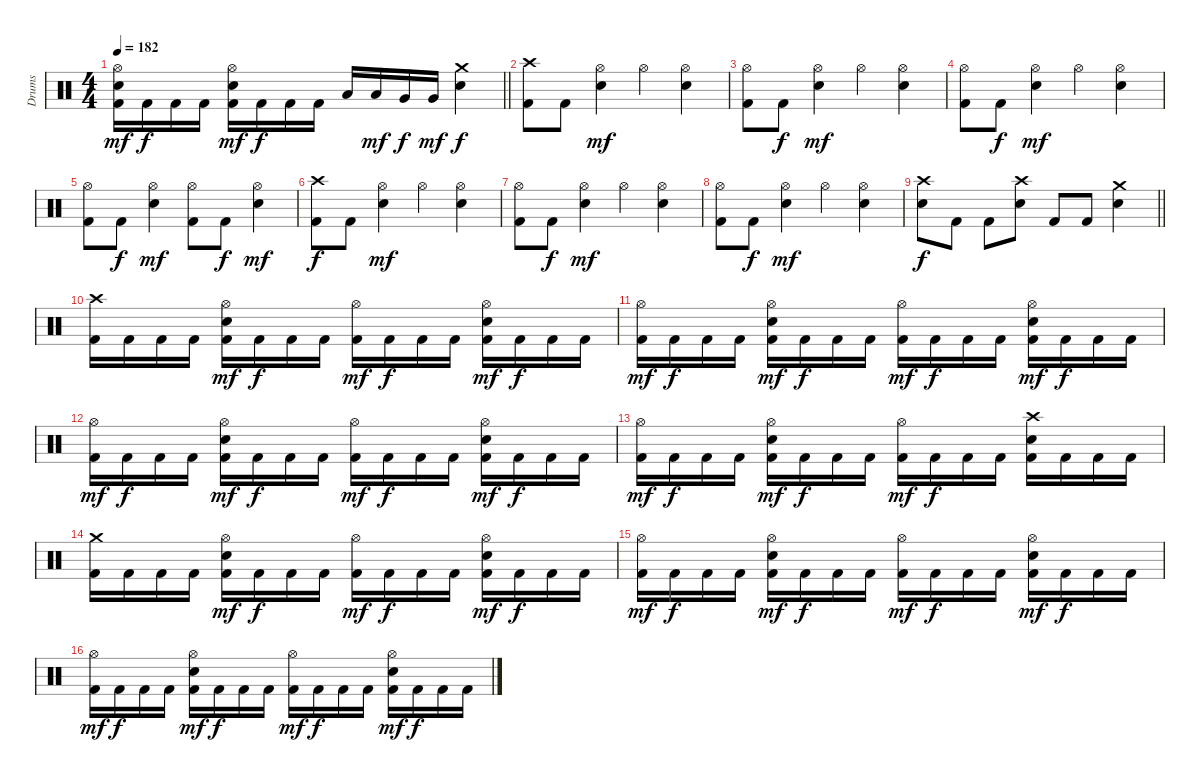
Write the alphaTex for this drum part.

\track ("Drums" "Drums") {instrument percussion}
\staff {score}
\articulation defaults
\ts (4 4)
\tempo 182
\clef neutral
\barLineRight lightlight
\ks c
("Hi-Hat (open)" "Electric Snare (hit)" "Kick (hit) 2").16{dy mf} "Kick (hit) 2".16{dy f} "Kick (hit) 2".16 "Kick (hit) 2".16 ("Hi-Hat (open)" "Electric Snare (hit)" "Kick (hit) 2").16{dy mf} "Kick (hit) 2".16{dy f} "Kick (hit) 2".16 "Kick (hit) 2".16 "Low Tom (hit)".16 "Low Tom (hit)".16{dy mf} "Very Low Tom (hit)".16{dy f} "Very Low Tom (hit)".16{dy mf} ("Crash medium (hit)" "Electric Snare (hit)").4{dy f} |
("Crash high (hit)" "Kick (hit) 2").8 "Kick (hit) 2".8 ("Hi-Hat (open)" "Electric Snare (hit)").4{dy mf} "Hi-Hat (open)".4 ("Hi-Hat (open)" "Electric Snare (hit)").4 |
("Hi-Hat (open)" "Kick (hit) 2").8 "Kick (hit) 2".8{dy f} ("Hi-Hat (open)" "Electric Snare (hit)").4{dy mf} "Hi-Hat (open)".4 ("Hi-Hat (open)" "Electric Snare (hit)").4 |
("Hi-Hat (open)" "Kick (hit) 2").8 "Kick (hit) 2".8{dy f} ("Hi-Hat (open)" "Electric Snare (hit)").4{dy mf} "Hi-Hat (open)".4 ("Hi-Hat (open)" "Electric Snare (hit)").4 |
("Hi-Hat (open)" "Kick (hit) 2").8 "Kick (hit) 2".8{dy f} ("Hi-Hat (open)" "Electric Snare (hit)").4{dy mf} ("Hi-Hat (open)" "Kick (hit) 2").8 "Kick (hit) 2".8{dy f} ("Hi-Hat (open)" "Electric Snare (hit)").4{dy mf} |
("Crash high (hit)" "Kick (hit) 2").8{dy f} "Kick (hit) 2".8 ("Hi-Hat (open)" "Electric Snare (hit)").4{dy mf} "Hi-Hat (open)".4 ("Hi-Hat (open)" "Electric Snare (hit)").4 |
("Hi-Hat (open)" "Kick (hit) 2").8 "Kick (hit) 2".8{dy f} ("Hi-Hat (open)" "Electric Snare (hit)").4{dy mf} "Hi-Hat (open)".4 ("Hi-Hat (open)" "Electric Snare (hit)").4 |
("Hi-Hat (open)" "Kick (hit) 2").8 "Kick (hit) 2".8{dy f} ("Hi-Hat (open)" "Electric Snare (hit)").4{dy mf} "Hi-Hat (open)".4 ("Hi-Hat (open)" "Electric Snare (hit)").4 |
\barLineRight lightlight
("Crash high (hit)" "Electric Snare (hit)").8{dy f} "Kick (hit) 2".8 "Kick (hit) 2".8 ("Crash high (hit)" "Electric Snare (hit)").8 "Kick (hit) 2".8 "Kick (hit) 2".8 ("Crash medium (hit)" "Electric Snare (hit)").4 |
("Crash high (hit)" "Kick (hit) 2").16 "Kick (hit) 2".16 "Kick (hit) 2".16 "Kick (hit) 2".16 ("Hi-Hat (open)" "Electric Snare (hit)" "Kick (hit) 2").16{dy mf} "Kick (hit) 2".16{dy f} "Kick (hit) 2".16 "Kick (hit) 2".16 ("Hi-Hat (open)" "Kick (hit) 2").16{dy mf} "Kick (hit) 2".16{dy f} "Kick (hit) 2".16 "Kick (hit) 2".16 ("Hi-Hat (open)" "Electric Snare (hit)" "Kick (hit) 2").16{dy mf} "Kick (hit) 2".16{dy f} "Kick (hit) 2".16 "Kick (hit) 2".16 |
("Hi-Hat (open)" "Kick (hit) 2").16{dy mf} "Kick (hit) 2".16{dy f} "Kick (hit) 2".16 "Kick (hit) 2".16 ("Hi-Hat (open)" "Electric Snare (hit)" "Kick (hit) 2").16{dy mf} "Kick (hit) 2".16{dy f} "Kick (hit) 2".16 "Kick (hit) 2".16 ("Hi-Hat (open)" "Kick (hit) 2").16{dy mf} "Kick (hit) 2".16{dy f} "Kick (hit) 2".16 "Kick (hit) 2".16 ("Hi-Hat (open)" "Electric Snare (hit)" "Kick (hit) 2").16{dy mf} "Kick (hit) 2".16{dy f} "Kick (hit) 2".16 "Kick (hit) 2".16 |
("Hi-Hat (open)" "Kick (hit) 2").16{dy mf} "Kick (hit) 2".16{dy f} "Kick (hit) 2".16 "Kick (hit) 2".16 ("Hi-Hat (open)" "Electric Snare (hit)" "Kick (hit) 2").16{dy mf} "Kick (hit) 2".16{dy f} "Kick (hit) 2".16 "Kick (hit) 2".16 ("Hi-Hat (open)" "Kick (hit) 2").16{dy mf} "Kick (hit) 2".16{dy f} "Kick (hit) 2".16 "Kick (hit) 2".16 ("Hi-Hat (open)" "Electric Snare (hit)" "Kick (hit) 2").16{dy mf} "Kick (hit) 2".16{dy f} "Kick (hit) 2".16 "Kick (hit) 2".16 |
("Hi-Hat (open)" "Kick (hit) 2").16{dy mf} "Kick (hit) 2".16{dy f} "Kick (hit) 2".16 "Kick (hit) 2".16 ("Hi-Hat (open)" "Electric Snare (hit)" "Kick (hit) 2").16{dy mf} "Kick (hit) 2".16{dy f} "Kick (hit) 2".16 "Kick (hit) 2".16 ("Hi-Hat (open)" "Kick (hit) 2").16{dy mf} "Kick (hit) 2".16{dy f} "Kick (hit) 2".16 "Kick (hit) 2".16 ("Crash high (hit)" "Electric Snare (hit)" "Kick (hit) 2").16 "Kick (hit) 2".16 "Kick (hit) 2".16 "Kick (hit) 2".16 |
("Crash medium (hit)" "Kick (hit) 2").16 "Kick (hit) 2".16 "Kick (hit) 2".16 "Kick (hit) 2".16 ("Hi-Hat (open)" "Electric Snare (hit)" "Kick (hit) 2").16{dy mf} "Kick (hit) 2".16{dy f} "Kick (hit) 2".16 "Kick (hit) 2".16 ("Hi-Hat (open)" "Kick (hit) 2").16{dy mf} "Kick (hit) 2".16{dy f} "Kick (hit) 2".16 "Kick (hit) 2".16 ("Hi-Hat (open)" "Electric Snare (hit)" "Kick (hit) 2").16{dy mf} "Kick (hit) 2".16{dy f} "Kick (hit) 2".16 "Kick (hit) 2".16 |
("Hi-Hat (open)" "Kick (hit) 2").16{dy mf} "Kick (hit) 2".16{dy f} "Kick (hit) 2".16 "Kick (hit) 2".16 ("Hi-Hat (open)" "Electric Snare (hit)" "Kick (hit) 2").16{dy mf} "Kick (hit) 2".16{dy f} "Kick (hit) 2".16 "Kick (hit) 2".16 ("Hi-Hat (open)" "Kick (hit) 2").16{dy mf} "Kick (hit) 2".16{dy f} "Kick (hit) 2".16 "Kick (hit) 2".16 ("Hi-Hat (open)" "Electric Snare (hit)" "Kick (hit) 2").16{dy mf} "Kick (hit) 2".16{dy f} "Kick (hit) 2".16 "Kick (hit) 2".16 |
("Hi-Hat (open)" "Kick (hit) 2").16{dy mf} "Kick (hit) 2".16{dy f} "Kick (hit) 2".16 "Kick (hit) 2".16 ("Hi-Hat (open)" "Electric Snare (hit)" "Kick (hit) 2").16{dy mf} "Kick (hit) 2".16{dy f} "Kick (hit) 2".16 "Kick (hit) 2".16 ("Hi-Hat (open)" "Kick (hit) 2").16{dy mf} "Kick (hit) 2".16{dy f} "Kick (hit) 2".16 "Kick (hit) 2".16 ("Hi-Hat (open)" "Electric Snare (hit)" "Kick (hit) 2").16{dy mf} "Kick (hit) 2".16{dy f} "Kick (hit) 2".16 "Kick (hit) 2".16
